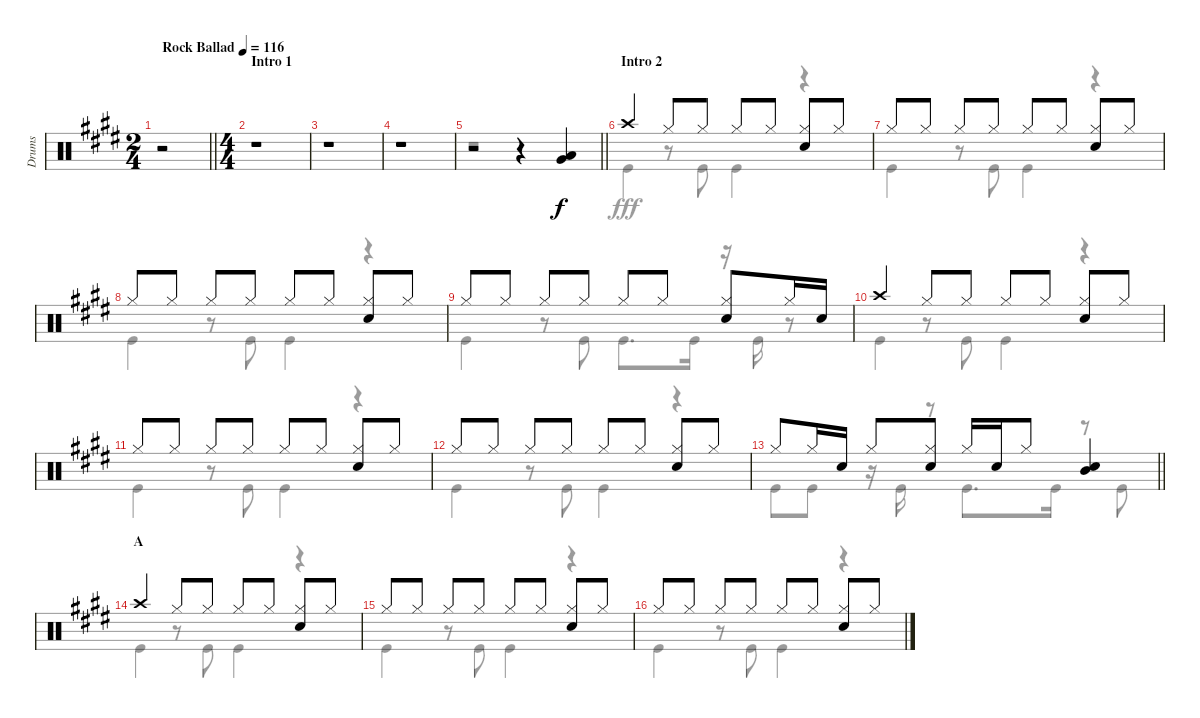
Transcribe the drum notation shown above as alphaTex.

\track ("Drums" "Drums") {instrument percussion}
\staff {score}
\articulation defaults
\voice
\ts (2 4)
\tempo (116 "Rock Ballad")
\clef neutral
\barLineRight lightlight
\ks e
r.2{dy f} |
\ts (4 4)
\section ("" "Intro 1")
r.1 |
r.1 |
r.1 |
\barLineRight lightlight
r.2 r.4 ("Low Tom (hit)" "Very Low Tom (hit)").4 |
\section ("" "Intro 2")
"Crash high (hit)".4 "Hi-Hat (closed)".8 "Hi-Hat (closed)".8 "Hi-Hat (closed)".8 "Hi-Hat (closed)".8 ("Hi-Hat (closed)" "Snare (hit) 2").8 "Hi-Hat (closed)".8 |
"Hi-Hat (closed)".8 "Hi-Hat (closed)".8 "Hi-Hat (closed)".8 "Hi-Hat (closed)".8 "Hi-Hat (closed)".8 "Hi-Hat (closed)".8 ("Hi-Hat (closed)" "Snare (hit) 2").8 "Hi-Hat (closed)".8 |
"Hi-Hat (closed)".8 "Hi-Hat (closed)".8 "Hi-Hat (closed)".8 "Hi-Hat (closed)".8 "Hi-Hat (closed)".8 "Hi-Hat (closed)".8 ("Hi-Hat (closed)" "Snare (hit) 2").8 "Hi-Hat (closed)".8 |
"Hi-Hat (closed)".8 "Hi-Hat (closed)".8 "Hi-Hat (closed)".8 "Hi-Hat (closed)".8 "Hi-Hat (closed)".8 "Hi-Hat (closed)".8 ("Hi-Hat (closed)" "Snare (hit) 2").8 "Hi-Hat (closed)".16 "Snare (hit) 2".16 |
"Crash high (hit)".4 "Hi-Hat (closed)".8 "Hi-Hat (closed)".8 "Hi-Hat (closed)".8 "Hi-Hat (closed)".8 ("Hi-Hat (closed)" "Snare (hit) 2").8 "Hi-Hat (closed)".8 |
"Hi-Hat (closed)".8 "Hi-Hat (closed)".8 "Hi-Hat (closed)".8 "Hi-Hat (closed)".8 "Hi-Hat (closed)".8 "Hi-Hat (closed)".8 ("Hi-Hat (closed)" "Snare (hit) 2").8 "Hi-Hat (closed)".8 |
"Hi-Hat (closed)".8 "Hi-Hat (closed)".8 "Hi-Hat (closed)".8 "Hi-Hat (closed)".8 "Hi-Hat (closed)".8 "Hi-Hat (closed)".8 ("Hi-Hat (closed)" "Snare (hit) 2").8 "Hi-Hat (closed)".8 |
\barLineRight lightlight "Hi-Hat (closed)".8 "Hi-Hat (closed)".16 "Snare (hit) 2".16 "Hi-Hat (closed)".8
("Hi-Hat (closed)" "Snare (hit) 2").8 "Hi-Hat (closed)".16 "Snare (hit) 2".16 "Hi-Hat (closed)".8 ("Snare (hit) 2" "Mid Tom (hit)").4 |
\section ("" "A")
"Crash high (hit)".4 "Hi-Hat (closed)".8 "Hi-Hat (closed)".8 "Hi-Hat (closed)".8 "Hi-Hat (closed)".8 ("Hi-Hat (closed)" "Snare (hit) 2").8 "Hi-Hat (closed)".8 |
"Hi-Hat (closed)".8 "Hi-Hat (closed)".8 "Hi-Hat (closed)".8 "Hi-Hat (closed)".8 "Hi-Hat (closed)".8 "Hi-Hat (closed)".8 ("Hi-Hat (closed)" "Snare (hit) 2").8 "Hi-Hat (closed)".8 |
"Hi-Hat (closed)".8 "Hi-Hat (closed)".8 "Hi-Hat (closed)".8 "Hi-Hat (closed)".8 "Hi-Hat (closed)".8 "Hi-Hat (closed)".8 ("Hi-Hat (closed)" "Snare (hit) 2").8 "Hi-Hat (closed)".8
\voice
\clef neutral
\ottava regular
\simile none
\barLineRight lightlight
\ks e
r.2{dy fff} |
r.1 |
r.1 |
r.1 |
\barLineRight lightlight
r.1 |
"Kick (hit)".4 r.8 "Kick (hit)".8 "Kick (hit)".4 r.4 |
"Kick (hit)".4 r.8 "Kick (hit)".8 "Kick (hit)".4 r.4 |
"Kick (hit)".4 r.8 "Kick (hit)".8 "Kick (hit)".4 r.4 |
"Kick (hit)".4 r.8 "Kick (hit)".8 "Kick (hit)".8{d} "Kick (hit)".16 r.16 "Kick (hit)".16 r.8 |
"Kick (hit)".4 r.8 "Kick (hit)".8 "Kick (hit)".4 r.4 |
"Kick (hit)".4 r.8 "Kick (hit)".8 "Kick (hit)".4 r.4 |
"Kick (hit)".4 r.8 "Kick (hit)".8 "Kick (hit)".4 r.4 |
\barLineRight lightlight "Kick (hit)".8 "Kick (hit)".8
r.16 "Kick (hit)".16 r.8 "Kick (hit)".8{d} "Kick (hit)".16 r.8 "Kick (hit)".8 |
"Kick (hit)".4 r.8 "Kick (hit)".8 "Kick (hit)".4 r.4 |
"Kick (hit)".4 r.8 "Kick (hit)".8 "Kick (hit)".4 r.4 |
"Kick (hit)".4 r.8 "Kick (hit)".8 "Kick (hit)".4 r.4
